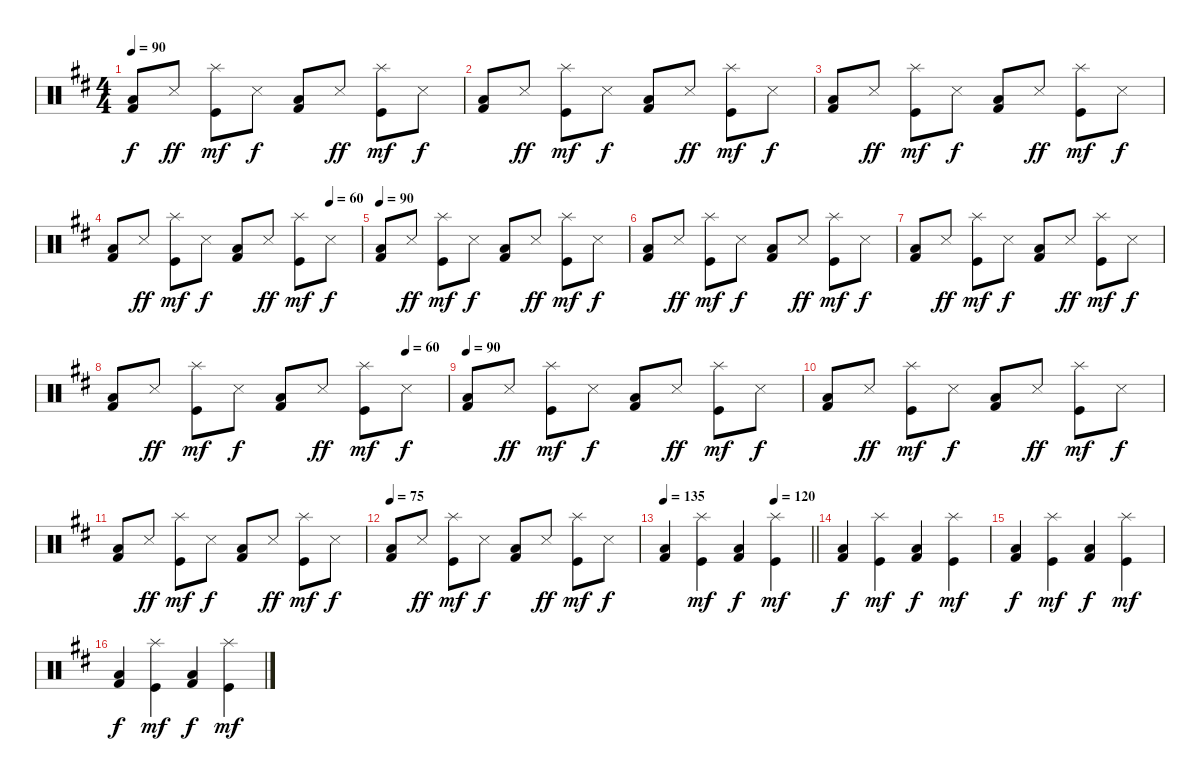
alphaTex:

\track "" {instrument percussion}
\staff {score}
\articulation defaults
\ts (4 4)
\section ("" "")
\tempo 90
\clef neutral
\ks d
("Kick (hit) 2" "Low Floor Tom (hit)").8{dy f} "Snare (side stick) 3".8{dy ff} ("Splash (hit)" "Kick (hit)").8{dy mf} "Snare (side stick) 3".8{dy f} ("Kick (hit) 2" "Low Floor Tom (hit)").8 "Snare (side stick) 3".8{dy ff} ("Splash (hit)" "Kick (hit)").8{dy mf} "Snare (side stick) 3".8{dy f} |
("Kick (hit) 2" "Low Floor Tom (hit)").8 "Snare (side stick) 3".8{dy ff} ("Splash (hit)" "Kick (hit)").8{dy mf} "Snare (side stick) 3".8{dy f} ("Kick (hit) 2" "Low Floor Tom (hit)").8 "Snare (side stick) 3".8{dy ff} ("Splash (hit)" "Kick (hit)").8{dy mf} "Snare (side stick) 3".8{dy f} |
("Kick (hit) 2" "Low Floor Tom (hit)").8 "Snare (side stick) 3".8{dy ff} ("Splash (hit)" "Kick (hit)").8{dy mf} "Snare (side stick) 3".8{dy f} ("Kick (hit) 2" "Low Floor Tom (hit)").8 "Snare (side stick) 3".8{dy ff} ("Splash (hit)" "Kick (hit)").8{dy mf} "Snare (side stick) 3".8{dy f} |
\tempo (60 0.875)
("Kick (hit) 2" "Low Floor Tom (hit)").8 "Snare (side stick) 3".8{dy ff} ("Splash (hit)" "Kick (hit)").8{dy mf} "Snare (side stick) 3".8{dy f} ("Kick (hit) 2" "Low Floor Tom (hit)").8 "Snare (side stick) 3".8{dy ff} ("Splash (hit)" "Kick (hit)").8{dy mf} "Snare (side stick) 3".8{dy f} |
\tempo 90
("Kick (hit) 2" "Low Floor Tom (hit)").8 "Snare (side stick) 3".8{dy ff} ("Splash (hit)" "Kick (hit)").8{dy mf} "Snare (side stick) 3".8{dy f} ("Kick (hit) 2" "Low Floor Tom (hit)").8 "Snare (side stick) 3".8{dy ff} ("Splash (hit)" "Kick (hit)").8{dy mf} "Snare (side stick) 3".8{dy f} |
("Kick (hit) 2" "Low Floor Tom (hit)").8 "Snare (side stick) 3".8{dy ff} ("Splash (hit)" "Kick (hit)").8{dy mf} "Snare (side stick) 3".8{dy f} ("Kick (hit) 2" "Low Floor Tom (hit)").8 "Snare (side stick) 3".8{dy ff} ("Splash (hit)" "Kick (hit)").8{dy mf} "Snare (side stick) 3".8{dy f} |
("Kick (hit) 2" "Low Floor Tom (hit)").8 "Snare (side stick) 3".8{dy ff} ("Splash (hit)" "Kick (hit)").8{dy mf} "Snare (side stick) 3".8{dy f} ("Kick (hit) 2" "Low Floor Tom (hit)").8 "Snare (side stick) 3".8{dy ff} ("Splash (hit)" "Kick (hit)").8{dy mf} "Snare (side stick) 3".8{dy f} |
\tempo (60 0.875)
("Kick (hit) 2" "Low Floor Tom (hit)").8 "Snare (side stick) 3".8{dy ff} ("Splash (hit)" "Kick (hit)").8{dy mf} "Snare (side stick) 3".8{dy f} ("Kick (hit) 2" "Low Floor Tom (hit)").8 "Snare (side stick) 3".8{dy ff} ("Splash (hit)" "Kick (hit)").8{dy mf} "Snare (side stick) 3".8{dy f} |
\tempo 90
("Kick (hit) 2" "Low Floor Tom (hit)").8 "Snare (side stick) 3".8{dy ff} ("Splash (hit)" "Kick (hit)").8{dy mf} "Snare (side stick) 3".8{dy f} ("Kick (hit) 2" "Low Floor Tom (hit)").8 "Snare (side stick) 3".8{dy ff} ("Splash (hit)" "Kick (hit)").8{dy mf} "Snare (side stick) 3".8{dy f} |
("Kick (hit) 2" "Low Floor Tom (hit)").8 "Snare (side stick) 3".8{dy ff} ("Splash (hit)" "Kick (hit)").8{dy mf} "Snare (side stick) 3".8{dy f} ("Kick (hit) 2" "Low Floor Tom (hit)").8 "Snare (side stick) 3".8{dy ff} ("Splash (hit)" "Kick (hit)").8{dy mf} "Snare (side stick) 3".8{dy f} |
("Kick (hit) 2" "Low Floor Tom (hit)").8 "Snare (side stick) 3".8{dy ff} ("Splash (hit)" "Kick (hit)").8{dy mf} "Snare (side stick) 3".8{dy f} ("Kick (hit) 2" "Low Floor Tom (hit)").8 "Snare (side stick) 3".8{dy ff} ("Splash (hit)" "Kick (hit)").8{dy mf} "Snare (side stick) 3".8{dy f} |
\tempo 75
("Kick (hit) 2" "Low Floor Tom (hit)").8 "Snare (side stick) 3".8{dy ff} ("Splash (hit)" "Kick (hit)").8{dy mf} "Snare (side stick) 3".8{dy f} ("Kick (hit) 2" "Low Floor Tom (hit)").8 "Snare (side stick) 3".8{dy ff} ("Splash (hit)" "Kick (hit)").8{dy mf} "Snare (side stick) 3".8{dy f} |
\tempo (120 0.75)
\tempo 135
\barLineRight lightlight
("Kick (hit) 2" "Low Floor Tom (hit)").4 ("Splash (hit)" "Kick (hit)").4{dy mf} ("Kick (hit) 2" "Low Floor Tom (hit)").4{dy f} ("Splash (hit)" "Kick (hit)").4{dy mf} |
\section ("" "")
("Kick (hit) 2" "Low Floor Tom (hit)").4{dy f} ("Splash (hit)" "Kick (hit)").4{dy mf} ("Kick (hit) 2" "Low Floor Tom (hit)").4{dy f} ("Splash (hit)" "Kick (hit)").4{dy mf} |
("Kick (hit) 2" "Low Floor Tom (hit)").4{dy f} ("Splash (hit)" "Kick (hit)").4{dy mf} ("Kick (hit) 2" "Low Floor Tom (hit)").4{dy f} ("Splash (hit)" "Kick (hit)").4{dy mf} |
("Kick (hit) 2" "Low Floor Tom (hit)").4{dy f} ("Splash (hit)" "Kick (hit)").4{dy mf} ("Kick (hit) 2" "Low Floor Tom (hit)").4{dy f} ("Splash (hit)" "Kick (hit)").4{dy mf}
